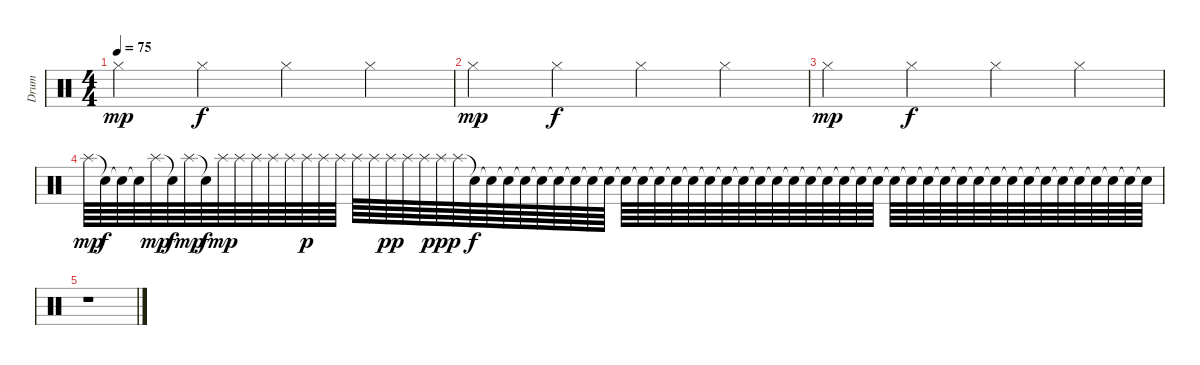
\track ("Drum" "Drum") {instrument percussion}
\staff {score}
\articulation defaults
\ts (4 4)
\tempo 75
\clef neutral
\ks c "Hi-Hat (closed)".4{dy mp} "Hi-Hat (closed)".4{dy f} "Hi-Hat (closed)".4 "Hi-Hat (closed)".4
|
"Hi-Hat (closed)".4{dy mp} "Hi-Hat (closed)".4{dy f} "Hi-Hat (closed)".4 "Hi-Hat (closed)".4 |
"Hi-Hat (closed)".4{dy mp} "Hi-Hat (closed)".4{dy f} "Hi-Hat (closed)".4 "Hi-Hat (closed)".4 |
"Splash (hit)".64{dy mp} "Snare (hit)"{t}.64{dy f} "Snare (hit)"{t}.64 "Snare (hit)"{t}.64 "Splash (hit)".64{dy mp} "Snare (hit)"{t}.64{dy f} "Splash (hit)".64{dy mp} "Snare (hit)"{t}.64{dy f} "Splash (hit)".64{dy mp} "Splash (hit)".64 "Splash (hit)".64 "Splash (hit)".64 "Splash (hit)".64 "Splash (hit)".64{dy p} "Splash (hit)".64 "Splash (hit)".64 "Splash (hit)".64 "Splash (hit)".64 "Splash (hit)".64{dy pp} "Splash (hit)".64 "Splash (hit)".64 "Splash (hit)".64{dy ppp} "Splash (hit)".64 "Snare (hit)"{t}.64{dy f} "Snare (hit)"{t}.64 "Snare (hit)"{t}.64 "Snare (hit)"{t}.64 "Snare (hit)"{t}.64 "Snare (hit)"{t}.64 "Snare (hit)"{t}.64 "Snare (hit)"{t}.64 "Snare (hit)"{t}.64 "Snare (hit)"{t}.64 "Snare (hit)"{t}.64 "Snare (hit)"{t}.64 "Snare (hit)"{t}.64 "Snare (hit)"{t}.64 "Snare (hit)"{t}.64 "Snare (hit)"{t}.64 "Snare (hit)"{t}.64 "Snare (hit)"{t}.64 "Snare (hit)"{t}.64 "Snare (hit)"{t}.64 "Snare (hit)"{t}.64 "Snare (hit)"{t}.64 "Snare (hit)"{t}.64 "Snare (hit)"{t}.64 "Snare (hit)"{t}.64 "Snare (hit)"{t}.64 "Snare (hit)"{t}.64 "Snare (hit)"{t}.64 "Snare (hit)"{t}.64 "Snare (hit)"{t}.64 "Snare (hit)"{t}.64 "Snare (hit)"{t}.64 "Snare (hit)"{t}.64 "Snare (hit)"{t}.64 "Snare (hit)"{t}.64 "Snare (hit)"{t}.64 "Snare (hit)"{t}.64 "Snare (hit)"{t}.64 "Snare (hit)"{t}.64 "Snare (hit)"{t}.64 "Snare (hit)"{t}.64 |
r.1
